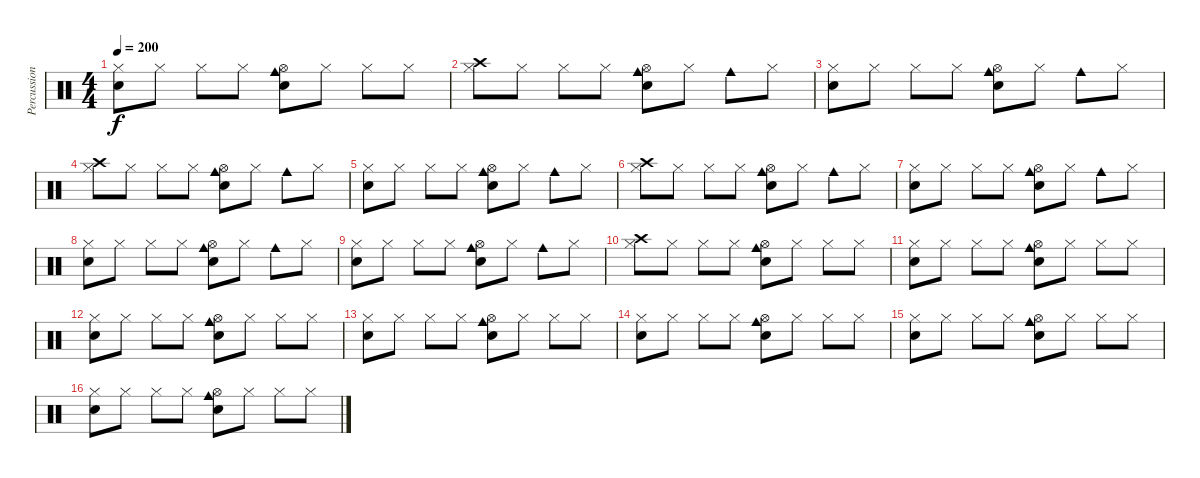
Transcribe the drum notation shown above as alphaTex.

\track ("Percussion" "Percussion") {instrument percussion}
\staff {score}
\articulation defaults
\ts (4 4)
\tempo 200
\clef neutral
\ks c
("Hi-Hat (closed)" "Electric Snare (hit)").8{dy f} "Hi-Hat (closed)".8 "Hi-Hat (closed)".8 "Hi-Hat (closed)".8 ("Cowbell medium (hit)" "Snare (hit) 2" "Hi-Hat (open)").8 "Hi-Hat (closed)".8 "Hi-Hat (closed)".8 "Hi-Hat (closed)".8 |
("Hi-Hat (closed)" "Crash high (hit)").8 "Hi-Hat (closed)".8 "Hi-Hat (closed)".8 "Hi-Hat (closed)".8 ("Cowbell medium (hit)" "Snare (hit) 2" "Hi-Hat (open)").8 "Hi-Hat (closed)".8 "Cowbell medium (hit)".8 "Hi-Hat (closed)".8 |
("Hi-Hat (closed)" "Electric Snare (hit)").8 "Hi-Hat (closed)".8 "Hi-Hat (closed)".8 "Hi-Hat (closed)".8 ("Cowbell medium (hit)" "Snare (hit) 2" "Hi-Hat (open)").8 "Hi-Hat (closed)".8 "Cowbell medium (hit)".8 "Hi-Hat (closed)".8 |
("Hi-Hat (closed)" "Crash high (hit)").8 "Hi-Hat (closed)".8 "Hi-Hat (closed)".8 "Hi-Hat (closed)".8 ("Cowbell medium (hit)" "Snare (hit) 2" "Hi-Hat (open)").8 "Hi-Hat (closed)".8 "Cowbell medium (hit)".8 "Hi-Hat (closed)".8 |
("Hi-Hat (closed)" "Electric Snare (hit)").8 "Hi-Hat (closed)".8 "Hi-Hat (closed)".8 "Hi-Hat (closed)".8 ("Cowbell medium (hit)" "Snare (hit) 2" "Hi-Hat (open)").8 "Hi-Hat (closed)".8 "Cowbell medium (hit)".8 "Hi-Hat (closed)".8 |
("Hi-Hat (closed)" "Crash high (hit)").8 "Hi-Hat (closed)".8 "Hi-Hat (closed)".8 "Hi-Hat (closed)".8 ("Cowbell medium (hit)" "Snare (hit) 2" "Hi-Hat (open)").8 "Hi-Hat (closed)".8 "Cowbell medium (hit)".8 "Hi-Hat (closed)".8 |
("Hi-Hat (closed)" "Electric Snare (hit)").8 "Hi-Hat (closed)".8 "Hi-Hat (closed)".8 "Hi-Hat (closed)".8 ("Cowbell medium (hit)" "Snare (hit) 2" "Hi-Hat (open)").8 "Hi-Hat (closed)".8 "Cowbell medium (hit)".8 "Hi-Hat (closed)".8 |
("Hi-Hat (closed)" "Electric Snare (hit)").8 "Hi-Hat (closed)".8 "Hi-Hat (closed)".8 "Hi-Hat (closed)".8 ("Cowbell medium (hit)" "Snare (hit) 2" "Hi-Hat (open)").8 "Hi-Hat (closed)".8 "Cowbell medium (hit)".8 "Hi-Hat (closed)".8 |
("Hi-Hat (closed)" "Electric Snare (hit)").8 "Hi-Hat (closed)".8 "Hi-Hat (closed)".8 "Hi-Hat (closed)".8 ("Cowbell medium (hit)" "Snare (hit) 2" "Hi-Hat (open)").8 "Hi-Hat (closed)".8 "Cowbell medium (hit)".8 "Hi-Hat (closed)".8 |
("Hi-Hat (closed)" "Crash high (hit)").8 "Hi-Hat (closed)".8 "Hi-Hat (closed)".8 "Hi-Hat (closed)".8 ("Cowbell medium (hit)" "Snare (hit) 2" "Hi-Hat (open)").8 "Hi-Hat (closed)".8 "Hi-Hat (closed)".8 "Hi-Hat (closed)".8 |
("Hi-Hat (closed)" "Electric Snare (hit)").8 "Hi-Hat (closed)".8 "Hi-Hat (closed)".8 "Hi-Hat (closed)".8 ("Cowbell medium (hit)" "Snare (hit) 2" "Hi-Hat (open)").8 "Hi-Hat (closed)".8 "Hi-Hat (closed)".8 "Hi-Hat (closed)".8 |
("Hi-Hat (closed)" "Electric Snare (hit)").8 "Hi-Hat (closed)".8 "Hi-Hat (closed)".8 "Hi-Hat (closed)".8 ("Cowbell medium (hit)" "Snare (hit) 2" "Hi-Hat (open)").8 "Hi-Hat (closed)".8 "Hi-Hat (closed)".8 "Hi-Hat (closed)".8 |
("Hi-Hat (closed)" "Electric Snare (hit)").8 "Hi-Hat (closed)".8 "Hi-Hat (closed)".8 "Hi-Hat (closed)".8 ("Cowbell medium (hit)" "Snare (hit) 2" "Hi-Hat (open)").8 "Hi-Hat (closed)".8 "Hi-Hat (closed)".8 "Hi-Hat (closed)".8 |
("Hi-Hat (closed)" "Electric Snare (hit)").8 "Hi-Hat (closed)".8 "Hi-Hat (closed)".8 "Hi-Hat (closed)".8 ("Cowbell medium (hit)" "Snare (hit) 2" "Hi-Hat (open)").8 "Hi-Hat (closed)".8 "Hi-Hat (closed)".8 "Hi-Hat (closed)".8 |
("Hi-Hat (closed)" "Electric Snare (hit)").8 "Hi-Hat (closed)".8 "Hi-Hat (closed)".8 "Hi-Hat (closed)".8 ("Cowbell medium (hit)" "Snare (hit) 2" "Hi-Hat (open)").8 "Hi-Hat (closed)".8 "Hi-Hat (closed)".8 "Hi-Hat (closed)".8 |
("Hi-Hat (closed)" "Electric Snare (hit)").8 "Hi-Hat (closed)".8 "Hi-Hat (closed)".8 "Hi-Hat (closed)".8 ("Cowbell medium (hit)" "Snare (hit) 2" "Hi-Hat (open)").8 "Hi-Hat (closed)".8 "Hi-Hat (closed)".8 "Hi-Hat (closed)".8
